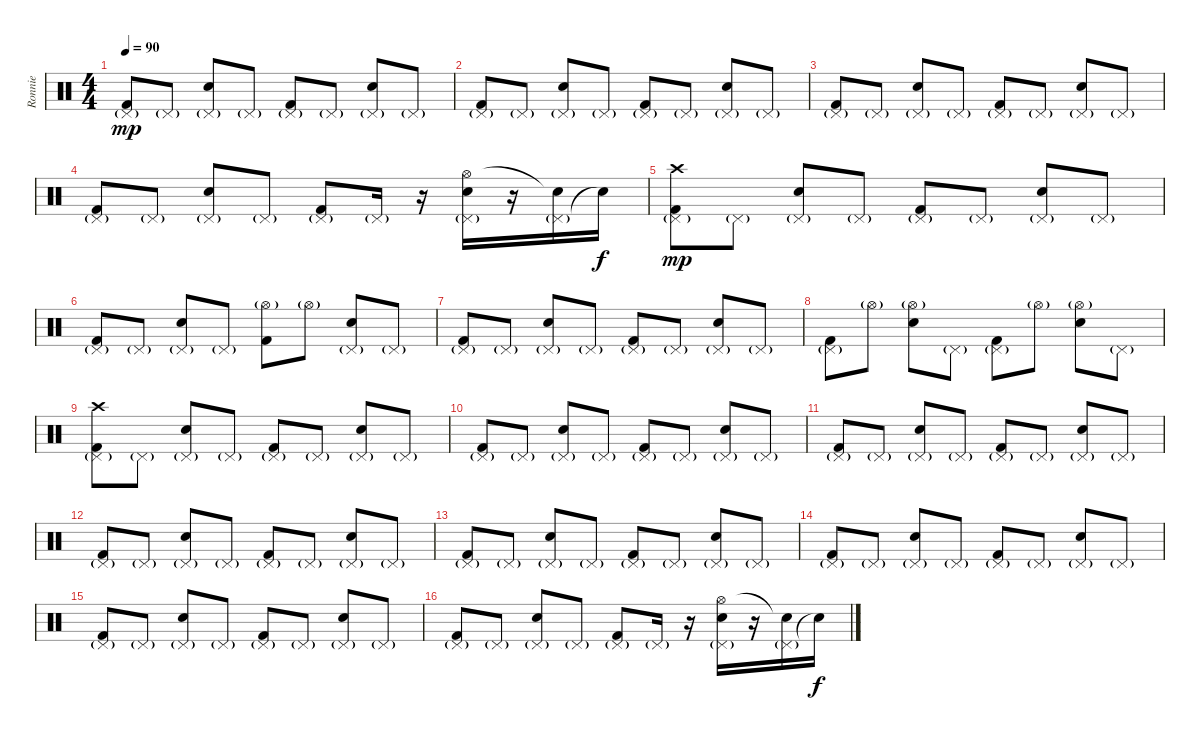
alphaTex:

\track ("Ronnie" "Ronnie") {instrument percussion}
\staff {score}
\articulation defaults
\ts (4 4)
\tempo 90
\clef neutral
\ks c
("Pedal Hi-Hat (hit)"{g} "Kick (hit) 2").8{dy mp} "Pedal Hi-Hat (hit)"{g}.8 ("Pedal Hi-Hat (hit)"{g} "Electric Snare (hit)").8 "Pedal Hi-Hat (hit)"{g}.8 ("Pedal Hi-Hat (hit)"{g} "Kick (hit) 2").8 "Pedal Hi-Hat (hit)"{g}.8 ("Pedal Hi-Hat (hit)"{g} "Electric Snare (hit)").8 "Pedal Hi-Hat (hit)"{g}.8 |
("Pedal Hi-Hat (hit)"{g} "Kick (hit) 2").8 "Pedal Hi-Hat (hit)"{g}.8 ("Pedal Hi-Hat (hit)"{g} "Electric Snare (hit)").8 "Pedal Hi-Hat (hit)"{g}.8 ("Pedal Hi-Hat (hit)"{g} "Kick (hit) 2").8 "Pedal Hi-Hat (hit)"{g}.8 ("Pedal Hi-Hat (hit)"{g} "Electric Snare (hit)").8 "Pedal Hi-Hat (hit)"{g}.8 |
("Pedal Hi-Hat (hit)"{g} "Kick (hit) 2").8 "Pedal Hi-Hat (hit)"{g}.8 ("Pedal Hi-Hat (hit)"{g} "Electric Snare (hit)").8 "Pedal Hi-Hat (hit)"{g}.8 ("Pedal Hi-Hat (hit)"{g} "Kick (hit) 2").8 "Pedal Hi-Hat (hit)"{g}.8 ("Pedal Hi-Hat (hit)"{g} "Electric Snare (hit)").8 "Pedal Hi-Hat (hit)"{g}.8 |
("Pedal Hi-Hat (hit)"{g} "Kick (hit) 2").8 "Pedal Hi-Hat (hit)"{g}.8 ("Pedal Hi-Hat (hit)"{g} "Electric Snare (hit)").8 "Pedal Hi-Hat (hit)"{g}.8 ("Pedal Hi-Hat (hit)"{g} "Kick (hit) 2").8 "Pedal Hi-Hat (hit)"{g}.16 r.16 ("Pedal Hi-Hat (hit)"{g} "Hi-Hat (open)" "Electric Snare (hit)").16 r.16 ("Pedal Hi-Hat (hit)"{g} "Snare (hit)"{t}).16 "Snare (hit)"{t}.16{dy f} |
("Pedal Hi-Hat (hit)"{g} "Crash high (hit)" "Kick (hit) 2").8{dy mp} "Pedal Hi-Hat (hit)"{g}.8 ("Pedal Hi-Hat (hit)"{g} "Electric Snare (hit)").8 "Pedal Hi-Hat (hit)"{g}.8 ("Pedal Hi-Hat (hit)"{g} "Kick (hit) 2").8 "Pedal Hi-Hat (hit)"{g}.8 ("Pedal Hi-Hat (hit)"{g} "Electric Snare (hit)").8 "Pedal Hi-Hat (hit)"{g}.8 |
("Pedal Hi-Hat (hit)"{g} "Kick (hit) 2").8 "Pedal Hi-Hat (hit)"{g}.8 ("Pedal Hi-Hat (hit)"{g} "Electric Snare (hit)").8 "Pedal Hi-Hat (hit)"{g}.8 ("Hi-Hat (open)"{g} "Kick (hit) 2").8 "Hi-Hat (open)"{g}.8 ("Pedal Hi-Hat (hit)"{g} "Electric Snare (hit)").8 "Pedal Hi-Hat (hit)"{g}.8 |
("Pedal Hi-Hat (hit)"{g} "Kick (hit) 2").8 "Pedal Hi-Hat (hit)"{g}.8 ("Pedal Hi-Hat (hit)"{g} "Electric Snare (hit)").8 "Pedal Hi-Hat (hit)"{g}.8 ("Pedal Hi-Hat (hit)"{g} "Kick (hit) 2").8 "Pedal Hi-Hat (hit)"{g}.8 ("Pedal Hi-Hat (hit)"{g} "Electric Snare (hit)").8 "Pedal Hi-Hat (hit)"{g}.8 |
("Pedal Hi-Hat (hit)"{g} "Kick (hit) 2").8 "Hi-Hat (open)"{g}.8 ("Hi-Hat (open)"{g} "Electric Snare (hit)").8 "Pedal Hi-Hat (hit)"{g}.8 ("Pedal Hi-Hat (hit)"{g} "Kick (hit) 2").8 "Hi-Hat (open)"{g}.8 ("Hi-Hat (open)"{g} "Electric Snare (hit)").8 "Pedal Hi-Hat (hit)"{g}.8 |
("Pedal Hi-Hat (hit)"{g} "Crash high (hit)" "Kick (hit) 2").8 "Pedal Hi-Hat (hit)"{g}.8 ("Pedal Hi-Hat (hit)"{g} "Electric Snare (hit)").8 "Pedal Hi-Hat (hit)"{g}.8 ("Pedal Hi-Hat (hit)"{g} "Kick (hit) 2").8 "Pedal Hi-Hat (hit)"{g}.8 ("Pedal Hi-Hat (hit)"{g} "Electric Snare (hit)").8 "Pedal Hi-Hat (hit)"{g}.8 |
("Pedal Hi-Hat (hit)"{g} "Kick (hit) 2").8 "Pedal Hi-Hat (hit)"{g}.8 ("Pedal Hi-Hat (hit)"{g} "Electric Snare (hit)").8 "Pedal Hi-Hat (hit)"{g}.8 ("Pedal Hi-Hat (hit)"{g} "Kick (hit) 2").8 "Pedal Hi-Hat (hit)"{g}.8 ("Pedal Hi-Hat (hit)"{g} "Electric Snare (hit)").8 "Pedal Hi-Hat (hit)"{g}.8 |
("Pedal Hi-Hat (hit)"{g} "Kick (hit) 2").8 "Pedal Hi-Hat (hit)"{g}.8 ("Pedal Hi-Hat (hit)"{g} "Electric Snare (hit)").8 "Pedal Hi-Hat (hit)"{g}.8 ("Pedal Hi-Hat (hit)"{g} "Kick (hit) 2").8 "Pedal Hi-Hat (hit)"{g}.8 ("Pedal Hi-Hat (hit)"{g} "Electric Snare (hit)").8 "Pedal Hi-Hat (hit)"{g}.8 |
("Pedal Hi-Hat (hit)"{g} "Kick (hit) 2").8 "Pedal Hi-Hat (hit)"{g}.8 ("Pedal Hi-Hat (hit)"{g} "Electric Snare (hit)").8 "Pedal Hi-Hat (hit)"{g}.8 ("Pedal Hi-Hat (hit)"{g} "Kick (hit) 2").8 "Pedal Hi-Hat (hit)"{g}.8 ("Pedal Hi-Hat (hit)"{g} "Electric Snare (hit)").8 "Pedal Hi-Hat (hit)"{g}.8 |
("Pedal Hi-Hat (hit)"{g} "Kick (hit) 2").8 "Pedal Hi-Hat (hit)"{g}.8 ("Pedal Hi-Hat (hit)"{g} "Electric Snare (hit)").8 "Pedal Hi-Hat (hit)"{g}.8 ("Pedal Hi-Hat (hit)"{g} "Kick (hit) 2").8 "Pedal Hi-Hat (hit)"{g}.8 ("Pedal Hi-Hat (hit)"{g} "Electric Snare (hit)").8 "Pedal Hi-Hat (hit)"{g}.8 |
("Pedal Hi-Hat (hit)"{g} "Kick (hit) 2").8 "Pedal Hi-Hat (hit)"{g}.8 ("Pedal Hi-Hat (hit)"{g} "Electric Snare (hit)").8 "Pedal Hi-Hat (hit)"{g}.8 ("Pedal Hi-Hat (hit)"{g} "Kick (hit) 2").8 "Pedal Hi-Hat (hit)"{g}.8 ("Pedal Hi-Hat (hit)"{g} "Electric Snare (hit)").8 "Pedal Hi-Hat (hit)"{g}.8 |
("Pedal Hi-Hat (hit)"{g} "Kick (hit) 2").8 "Pedal Hi-Hat (hit)"{g}.8 ("Pedal Hi-Hat (hit)"{g} "Electric Snare (hit)").8 "Pedal Hi-Hat (hit)"{g}.8 ("Pedal Hi-Hat (hit)"{g} "Kick (hit) 2").8 "Pedal Hi-Hat (hit)"{g}.8 ("Pedal Hi-Hat (hit)"{g} "Electric Snare (hit)").8 "Pedal Hi-Hat (hit)"{g}.8 |
("Pedal Hi-Hat (hit)"{g} "Kick (hit) 2").8 "Pedal Hi-Hat (hit)"{g}.8 ("Pedal Hi-Hat (hit)"{g} "Electric Snare (hit)").8 "Pedal Hi-Hat (hit)"{g}.8 ("Pedal Hi-Hat (hit)"{g} "Kick (hit) 2").8 "Pedal Hi-Hat (hit)"{g}.16 r.16 ("Pedal Hi-Hat (hit)"{g} "Hi-Hat (open)" "Electric Snare (hit)").16 r.16 ("Pedal Hi-Hat (hit)"{g} "Snare (hit)"{t}).16 "Snare (hit)"{t}.16{dy f}
